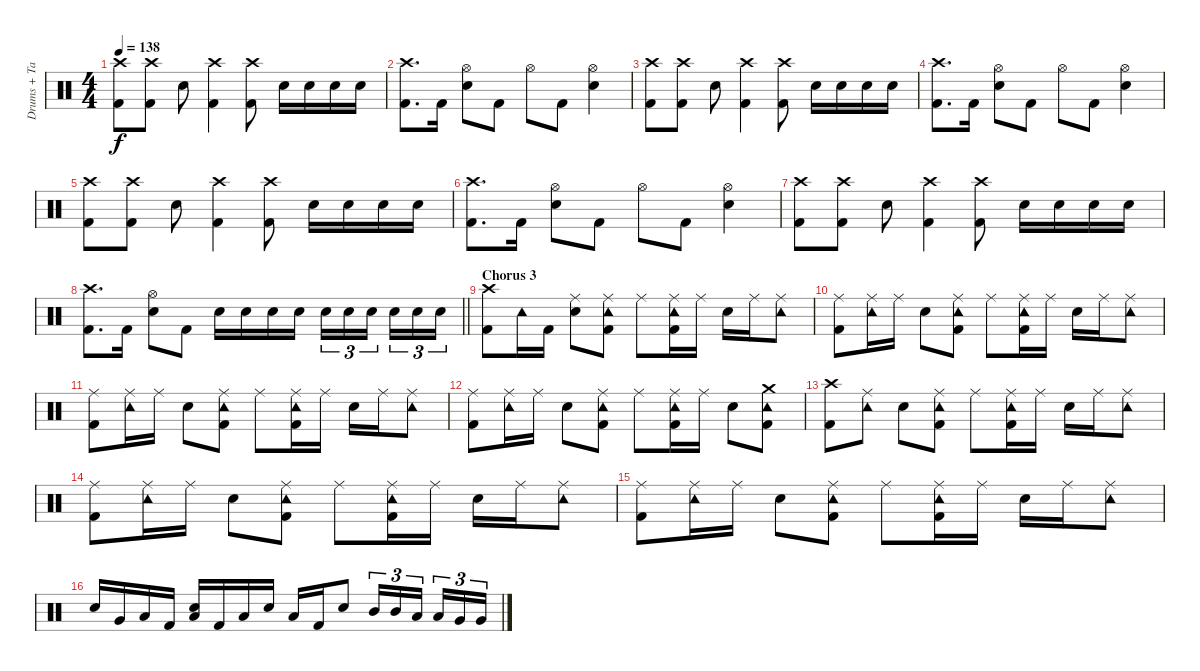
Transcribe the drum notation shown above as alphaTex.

\track ("Drums + Tambourine" "Drums + Ta") {instrument percussion}
\staff {score}
\articulation defaults
\ts (4 4)
\tempo 138
\clef neutral
\ks c
("Crash high (hit)" "Kick (hit) 2").8{dy f} ("Crash high (hit)" "Kick (hit) 2").8 "Electric Snare (hit)".8 ("Crash high (hit)" "Kick (hit) 2").4 ("Crash high (hit)" "Kick (hit) 2").8 "Electric Snare (hit)".16 "Electric Snare (hit)".16 "Electric Snare (hit)".16 "Electric Snare (hit)".16 |
("Crash high (hit)" "Kick (hit) 2").8{d} "Kick (hit) 2".16 ("Hi-Hat (open)" "Electric Snare (hit)").8 "Kick (hit) 2".8 "Hi-Hat (open)".8 "Kick (hit) 2".8 ("Hi-Hat (open)" "Electric Snare (hit)").4 |
("Crash high (hit)" "Kick (hit) 2").8 ("Crash high (hit)" "Kick (hit) 2").8 "Electric Snare (hit)".8 ("Crash high (hit)" "Kick (hit) 2").4 ("Crash high (hit)" "Kick (hit) 2").8 "Electric Snare (hit)".16 "Electric Snare (hit)".16 "Electric Snare (hit)".16 "Electric Snare (hit)".16 |
("Crash high (hit)" "Kick (hit) 2").8{d} "Kick (hit) 2".16 ("Hi-Hat (open)" "Electric Snare (hit)").8 "Kick (hit) 2".8 "Hi-Hat (open)".8 "Kick (hit) 2".8 ("Hi-Hat (open)" "Electric Snare (hit)").4 |
("Crash high (hit)" "Kick (hit) 2").8 ("Crash high (hit)" "Kick (hit) 2").8 "Electric Snare (hit)".8 ("Crash high (hit)" "Kick (hit) 2").4 ("Crash high (hit)" "Kick (hit) 2").8 "Electric Snare (hit)".16 "Electric Snare (hit)".16 "Electric Snare (hit)".16 "Electric Snare (hit)".16 |
("Crash high (hit)" "Kick (hit) 2").8{d} "Kick (hit) 2".16 ("Hi-Hat (open)" "Electric Snare (hit)").8 "Kick (hit) 2".8 "Hi-Hat (open)".8 "Kick (hit) 2".8 ("Hi-Hat (open)" "Electric Snare (hit)").4 |
("Crash high (hit)" "Kick (hit) 2").8 ("Crash high (hit)" "Kick (hit) 2").8 "Electric Snare (hit)".8 ("Crash high (hit)" "Kick (hit) 2").4 ("Crash high (hit)" "Kick (hit) 2").8 "Electric Snare (hit)".16 "Electric Snare (hit)".16 "Electric Snare (hit)".16 "Electric Snare (hit)".16 |
\barLineRight lightlight
("Crash high (hit)" "Kick (hit) 2").8{d} "Kick (hit) 2".16 ("Hi-Hat (open)" "Electric Snare (hit)").8 "Kick (hit) 2".8 "Electric Snare (hit)".16 "Electric Snare (hit)".16 "Electric Snare (hit)".16 "Electric Snare (hit)".16 "Electric Snare (hit)".16{tu (3 2)} "Electric Snare (hit)".16{tu (3 2)} "Electric Snare (hit)".16{tu (3 2) beam splitsecondary} "Electric Snare (hit)".16{tu (3 2)} "Electric Snare (hit)".16{tu (3 2)} "Electric Snare (hit)".16{tu (3 2)} |
\section ("" "Chorus 3")
("Crash high (hit)" "Kick (hit) 2").8 "Tambourine (hit)".16 "Kick (hit) 2".16 ("Ride (middle)" "Electric Snare (hit)").8 ("Tambourine (hit)" "Ride (middle)" "Kick (hit) 2").8 "Ride (middle)".8 ("Tambourine (hit)" "Ride (middle)" "Kick (hit) 2").16 "Ride (middle)".16 "Electric Snare (hit)".16 "Ride (middle)".16 ("Tambourine (hit)" "Ride (middle)").8 |
("Ride (middle)" "Kick (hit) 2").8 ("Tambourine (hit)" "Ride (middle)").16 "Ride (middle)".16 "Electric Snare (hit)".8 ("Tambourine (hit)" "Ride (middle)" "Kick (hit) 2").8 "Ride (middle)".8 ("Tambourine (hit)" "Ride (middle)" "Kick (hit) 2").16 "Ride (middle)".16 "Electric Snare (hit)".16 "Ride (middle)".16 ("Tambourine (hit)" "Ride (middle)").8 |
("Ride (middle)" "Kick (hit) 2").8 ("Tambourine (hit)" "Ride (middle)").16 "Ride (middle)".16 "Electric Snare (hit)".8 ("Tambourine (hit)" "Ride (middle)" "Kick (hit) 2").8 "Ride (middle)".8 ("Tambourine (hit)" "Ride (middle)" "Kick (hit) 2").16 "Ride (middle)".16 "Electric Snare (hit)".16 "Ride (middle)".16 ("Tambourine (hit)" "Ride (middle)").8 |
("Ride (middle)" "Kick (hit) 2").8 ("Tambourine (hit)" "Ride (middle)").16 "Ride (middle)".16 "Electric Snare (hit)".8 ("Tambourine (hit)" "Ride (middle)" "Kick (hit) 2").8 "Ride (middle)".8 ("Tambourine (hit)" "Ride (middle)" "Kick (hit) 2").16 "Ride (middle)".16 "Electric Snare (hit)".8 ("Tambourine (hit)" "Crash medium (hit)" "Kick (hit) 2").8 |
("Crash high (hit)" "Kick (hit) 2").8 ("Tambourine (hit)" "Ride (middle)").8 "Electric Snare (hit)".8 ("Tambourine (hit)" "Ride (middle)" "Kick (hit) 2").8 "Ride (middle)".8 ("Tambourine (hit)" "Ride (middle)" "Kick (hit) 2").16 "Ride (middle)".16 "Electric Snare (hit)".16 "Ride (middle)".16 ("Tambourine (hit)" "Ride (middle)").8 |
("Ride (middle)" "Kick (hit) 2").8 ("Tambourine (hit)" "Ride (middle)").16 "Ride (middle)".16 "Electric Snare (hit)".8 ("Tambourine (hit)" "Ride (middle)" "Kick (hit) 2").8 "Ride (middle)".8 ("Tambourine (hit)" "Ride (middle)" "Kick (hit) 2").16 "Ride (middle)".16 "Electric Snare (hit)".16 "Ride (middle)".16 ("Tambourine (hit)" "Ride (middle)").8 |
("Ride (middle)" "Kick (hit) 2").8 ("Tambourine (hit)" "Ride (middle)").16 "Ride (middle)".16 "Electric Snare (hit)".8 ("Tambourine (hit)" "Ride (middle)" "Kick (hit) 2").8 "Ride (middle)".8 ("Tambourine (hit)" "Ride (middle)" "Kick (hit) 2").16 "Ride (middle)".16 "Electric Snare (hit)".16 "Ride (middle)".16 ("Tambourine (hit)" "Ride (middle)").8 |
"Electric Snare (hit)".16 "Very Low Tom (hit)".16 "Low Floor Tom (hit)".16 "Kick (hit) 2".16 ("Low Floor Tom (hit)" "Electric Snare (hit)").16 "Kick (hit) 2".16 "Low Floor Tom (hit)".16 "Electric Snare (hit)".16 "Low Floor Tom (hit)".16 "Kick (hit) 2".16 "Electric Snare (hit)".8 "Mid Tom (hit)".16{tu (3 2)} "Mid Tom (hit)".16{tu (3 2)} "Low Tom (hit)".16{tu (3 2) beam splitsecondary} "Low Tom (hit)".16{tu (3 2)} "Very Low Tom (hit)".16{tu (3 2)} "Very Low Tom (hit)".16{tu (3 2)}
